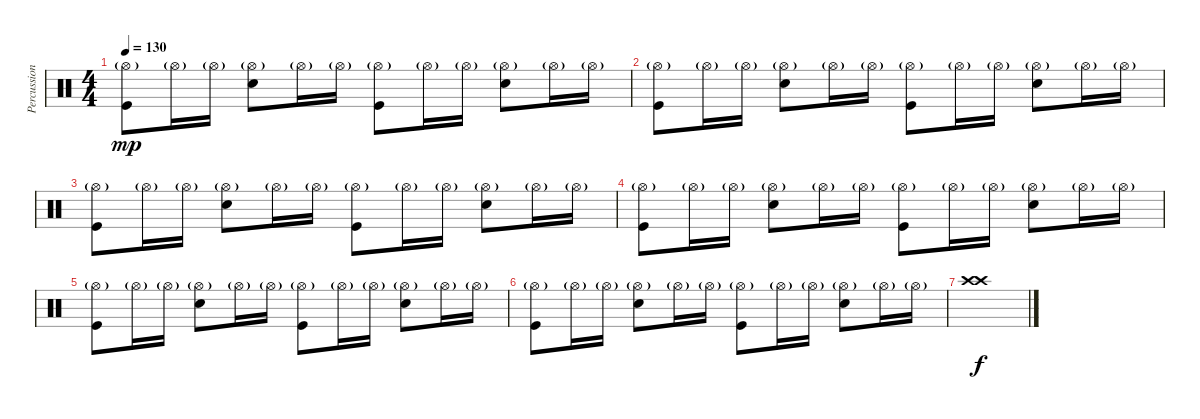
\track ("Percussion" "Percussion") {instrument percussion}
\staff {score}
\articulation defaults
\ts (4 4)
\tempo 130
\clef neutral
\ks c
("Hi-Hat (open)"{g} "Kick (hit)").8{dy mp} "Hi-Hat (open)"{g}.16 "Hi-Hat (open)"{g}.16 ("Hi-Hat (open)"{g} "Snare (hit) 2").8 "Hi-Hat (open)"{g}.16 "Hi-Hat (open)"{g}.16 ("Hi-Hat (open)"{g} "Kick (hit)").8 "Hi-Hat (open)"{g}.16 "Hi-Hat (open)"{g}.16 ("Hi-Hat (open)"{g} "Snare (hit) 2").8 "Hi-Hat (open)"{g}.16 "Hi-Hat (open)"{g}.16 |
("Hi-Hat (open)"{g} "Kick (hit)").8 "Hi-Hat (open)"{g}.16 "Hi-Hat (open)"{g}.16 ("Hi-Hat (open)"{g} "Snare (hit) 2").8 "Hi-Hat (open)"{g}.16 "Hi-Hat (open)"{g}.16 ("Hi-Hat (open)"{g} "Kick (hit)").8 "Hi-Hat (open)"{g}.16 "Hi-Hat (open)"{g}.16 ("Hi-Hat (open)"{g} "Snare (hit) 2").8 "Hi-Hat (open)"{g}.16 "Hi-Hat (open)"{g}.16 |
("Hi-Hat (open)"{g} "Kick (hit)").8{balance 8} "Hi-Hat (open)"{g}.16 "Hi-Hat (open)"{g}.16 ("Hi-Hat (open)"{g} "Snare (hit) 2").8 "Hi-Hat (open)"{g}.16 "Hi-Hat (open)"{g}.16 ("Hi-Hat (open)"{g} "Kick (hit)").8 "Hi-Hat (open)"{g}.16 "Hi-Hat (open)"{g}.16 ("Hi-Hat (open)"{g} "Snare (hit) 2").8 "Hi-Hat (open)"{g}.16 "Hi-Hat (open)"{g}.16 |
("Hi-Hat (open)"{g} "Kick (hit)").8{balance 8} "Hi-Hat (open)"{g}.16 "Hi-Hat (open)"{g}.16 ("Hi-Hat (open)"{g} "Snare (hit) 2").8 "Hi-Hat (open)"{g}.16 "Hi-Hat (open)"{g}.16 ("Hi-Hat (open)"{g} "Kick (hit)").8 "Hi-Hat (open)"{g}.16 "Hi-Hat (open)"{g}.16 ("Hi-Hat (open)"{g} "Snare (hit) 2").8 "Hi-Hat (open)"{g}.16 "Hi-Hat (open)"{g}.16 |
("Hi-Hat (open)"{g} "Kick (hit)").8{balance 8} "Hi-Hat (open)"{g}.16 "Hi-Hat (open)"{g}.16 ("Hi-Hat (open)"{g} "Snare (hit) 2").8 "Hi-Hat (open)"{g}.16 "Hi-Hat (open)"{g}.16 ("Hi-Hat (open)"{g} "Kick (hit)").8 "Hi-Hat (open)"{g}.16 "Hi-Hat (open)"{g}.16 ("Hi-Hat (open)"{g} "Snare (hit) 2").8 "Hi-Hat (open)"{g}.16 "Hi-Hat (open)"{g}.16 |
("Hi-Hat (open)"{g} "Kick (hit)").8{balance 8} "Hi-Hat (open)"{g}.16 "Hi-Hat (open)"{g}.16 ("Hi-Hat (open)"{g} "Snare (hit) 2").8 "Hi-Hat (open)"{g}.16 "Hi-Hat (open)"{g}.16 ("Hi-Hat (open)"{g} "Kick (hit)").8 "Hi-Hat (open)"{g}.16 "Hi-Hat (open)"{g}.16 ("Hi-Hat (open)"{g} "Snare (hit) 2").8 "Hi-Hat (open)"{g}.16 "Hi-Hat (open)"{g}.16 |
("Crash high (hit)" "Crash high (hit)").1{dy f}
